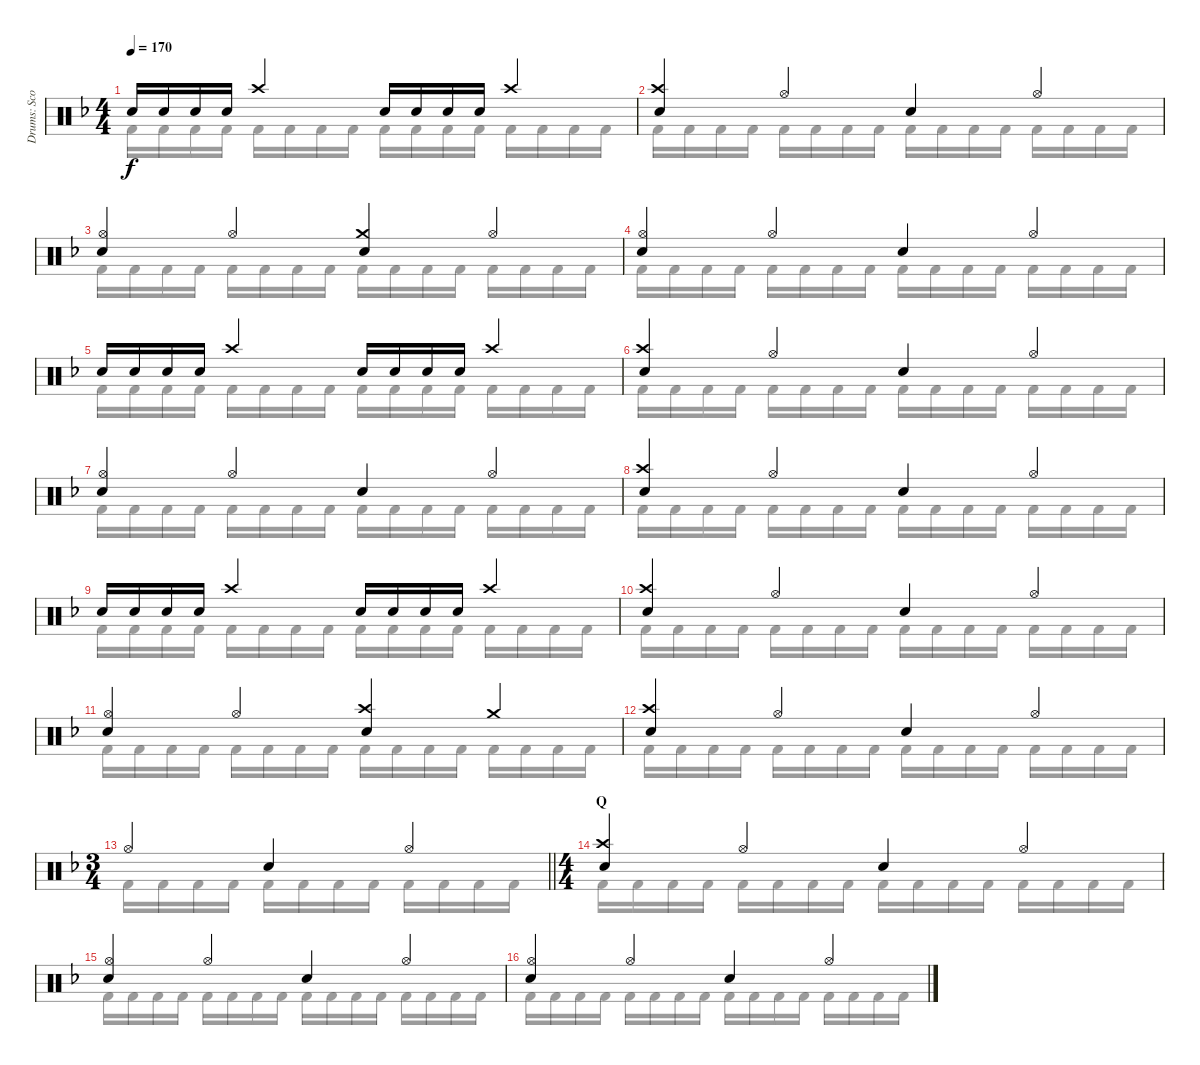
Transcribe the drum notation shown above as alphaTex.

\track ("Drums: Scott" "Drums: Sco") {instrument percussion}
\staff {score}
\articulation defaults
\voice
\ts (4 4)
\tempo 170
\clef neutral
\ks f "Snare (hit) 2".16{dy f} "Snare (hit) 2".16 "Snare (hit) 2".16 "Snare (hit) 2".16 "Crash high (hit)".4 "Snare (hit) 2".16 "Snare (hit) 2".16 "Snare (hit) 2".16 "Snare (hit) 2".16 "Crash high (hit)".4
|
("Crash high (hit)" "Snare (hit) 2").4 "Hi-Hat (open)".4 "Snare (hit) 2".4 "Hi-Hat (open)".4 |
("Hi-Hat (open)" "Snare (hit) 2").4 "Hi-Hat (open)".4 ("Crash medium (hit)" "Snare (hit) 2").4 "Hi-Hat (open)".4 |
("Hi-Hat (open)" "Snare (hit) 2").4 "Hi-Hat (open)".4 "Snare (hit) 2".4 "Hi-Hat (open)".4 |
"Snare (hit) 2".16 "Snare (hit) 2".16 "Snare (hit) 2".16 "Snare (hit) 2".16 "Crash high (hit)".4 "Snare (hit) 2".16 "Snare (hit) 2".16 "Snare (hit) 2".16 "Snare (hit) 2".16 "Crash high (hit)".4 |
("Crash high (hit)" "Snare (hit) 2").4 "Hi-Hat (open)".4 "Snare (hit) 2".4 "Hi-Hat (open)".4 |
("Hi-Hat (open)" "Snare (hit) 2").4 "Hi-Hat (open)".4 "Snare (hit) 2".4 "Hi-Hat (open)".4 |
("Crash high (hit)" "Snare (hit) 2").4 "Hi-Hat (open)".4 "Snare (hit) 2".4 "Hi-Hat (open)".4 |
"Snare (hit) 2".16 "Snare (hit) 2".16 "Snare (hit) 2".16 "Snare (hit) 2".16 "Crash high (hit)".4 "Snare (hit) 2".16 "Snare (hit) 2".16 "Snare (hit) 2".16 "Snare (hit) 2".16 "Crash high (hit)".4 |
("Crash high (hit)" "Snare (hit) 2").4 "Hi-Hat (open)".4 "Snare (hit) 2".4 "Hi-Hat (open)".4 |
("Hi-Hat (open)" "Snare (hit) 2").4 "Hi-Hat (open)".4 ("Crash high (hit)" "Snare (hit) 2").4 "Crash medium (hit)".4 |
("Crash high (hit)" "Snare (hit) 2").4 "Hi-Hat (open)".4 "Snare (hit) 2".4 "Hi-Hat (open)".4 |
\ts (3 4)
\barLineRight lightlight "Hi-Hat (open)".4 "Snare (hit) 2".4 "Hi-Hat (open)".4
|
\ts (4 4)
\section ("" "Q")
("Crash high (hit)" "Snare (hit) 2").4 "Hi-Hat (open)".4 "Snare (hit) 2".4 "Hi-Hat (open)".4 |
("Hi-Hat (open)" "Snare (hit) 2").4 "Hi-Hat (open)".4 "Snare (hit) 2".4 "Hi-Hat (open)".4 |
("Hi-Hat (open)" "Snare (hit) 2").4 "Hi-Hat (open)".4 "Snare (hit) 2".4 "Hi-Hat (open)".4
\voice
\clef neutral
\ottava regular
\simile none
\ks f "Kick (hit) 2".16{dy f} "Kick (hit) 2".16{beam merge} "Kick (hit) 2".16 "Kick (hit) 2".16 "Kick (hit) 2".16 "Kick (hit) 2".16{beam merge} "Kick (hit) 2".16 "Kick (hit) 2".16 "Kick (hit) 2".16 "Kick (hit) 2".16{beam merge} "Kick (hit) 2".16 "Kick (hit) 2".16 "Kick (hit) 2".16 "Kick (hit) 2".16{beam merge} "Kick (hit) 2".16 "Kick (hit) 2".16
|
"Kick (hit) 2".16 "Kick (hit) 2".16{beam merge} "Kick (hit) 2".16 "Kick (hit) 2".16 "Kick (hit) 2".16 "Kick (hit) 2".16{beam merge} "Kick (hit) 2".16 "Kick (hit) 2".16 "Kick (hit) 2".16 "Kick (hit) 2".16{beam merge} "Kick (hit) 2".16 "Kick (hit) 2".16 "Kick (hit) 2".16 "Kick (hit) 2".16{beam merge} "Kick (hit) 2".16 "Kick (hit) 2".16 |
"Kick (hit) 2".16 "Kick (hit) 2".16{beam merge} "Kick (hit) 2".16 "Kick (hit) 2".16 "Kick (hit) 2".16 "Kick (hit) 2".16{beam merge} "Kick (hit) 2".16 "Kick (hit) 2".16 "Kick (hit) 2".16 "Kick (hit) 2".16{beam merge} "Kick (hit) 2".16 "Kick (hit) 2".16 "Kick (hit) 2".16 "Kick (hit) 2".16{beam merge} "Kick (hit) 2".16 "Kick (hit) 2".16 |
"Kick (hit) 2".16 "Kick (hit) 2".16{beam merge} "Kick (hit) 2".16 "Kick (hit) 2".16 "Kick (hit) 2".16 "Kick (hit) 2".16{beam merge} "Kick (hit) 2".16 "Kick (hit) 2".16 "Kick (hit) 2".16 "Kick (hit) 2".16{beam merge} "Kick (hit) 2".16 "Kick (hit) 2".16 "Kick (hit) 2".16 "Kick (hit) 2".16{beam merge} "Kick (hit) 2".16 "Kick (hit) 2".16 |
"Kick (hit) 2".16 "Kick (hit) 2".16{beam merge} "Kick (hit) 2".16 "Kick (hit) 2".16 "Kick (hit) 2".16 "Kick (hit) 2".16{beam merge} "Kick (hit) 2".16 "Kick (hit) 2".16 "Kick (hit) 2".16 "Kick (hit) 2".16{beam merge} "Kick (hit) 2".16 "Kick (hit) 2".16 "Kick (hit) 2".16 "Kick (hit) 2".16{beam merge} "Kick (hit) 2".16 "Kick (hit) 2".16 |
"Kick (hit) 2".16 "Kick (hit) 2".16{beam merge} "Kick (hit) 2".16 "Kick (hit) 2".16 "Kick (hit) 2".16 "Kick (hit) 2".16{beam merge} "Kick (hit) 2".16 "Kick (hit) 2".16 "Kick (hit) 2".16 "Kick (hit) 2".16{beam merge} "Kick (hit) 2".16 "Kick (hit) 2".16 "Kick (hit) 2".16 "Kick (hit) 2".16{beam merge} "Kick (hit) 2".16 "Kick (hit) 2".16 |
"Kick (hit) 2".16 "Kick (hit) 2".16{beam merge} "Kick (hit) 2".16 "Kick (hit) 2".16 "Kick (hit) 2".16 "Kick (hit) 2".16{beam merge} "Kick (hit) 2".16 "Kick (hit) 2".16 "Kick (hit) 2".16 "Kick (hit) 2".16{beam merge} "Kick (hit) 2".16 "Kick (hit) 2".16 "Kick (hit) 2".16 "Kick (hit) 2".16{beam merge} "Kick (hit) 2".16 "Kick (hit) 2".16 |
"Kick (hit) 2".16 "Kick (hit) 2".16{beam merge} "Kick (hit) 2".16 "Kick (hit) 2".16 "Kick (hit) 2".16 "Kick (hit) 2".16{beam merge} "Kick (hit) 2".16 "Kick (hit) 2".16 "Kick (hit) 2".16 "Kick (hit) 2".16{beam merge} "Kick (hit) 2".16 "Kick (hit) 2".16 "Kick (hit) 2".16 "Kick (hit) 2".16{beam merge} "Kick (hit) 2".16 "Kick (hit) 2".16 |
"Kick (hit) 2".16 "Kick (hit) 2".16{beam merge} "Kick (hit) 2".16 "Kick (hit) 2".16 "Kick (hit) 2".16 "Kick (hit) 2".16{beam merge} "Kick (hit) 2".16 "Kick (hit) 2".16 "Kick (hit) 2".16 "Kick (hit) 2".16{beam merge} "Kick (hit) 2".16 "Kick (hit) 2".16 "Kick (hit) 2".16 "Kick (hit) 2".16{beam merge} "Kick (hit) 2".16 "Kick (hit) 2".16 |
"Kick (hit) 2".16 "Kick (hit) 2".16{beam merge} "Kick (hit) 2".16 "Kick (hit) 2".16 "Kick (hit) 2".16 "Kick (hit) 2".16{beam merge} "Kick (hit) 2".16 "Kick (hit) 2".16 "Kick (hit) 2".16 "Kick (hit) 2".16{beam merge} "Kick (hit) 2".16 "Kick (hit) 2".16 "Kick (hit) 2".16 "Kick (hit) 2".16{beam merge} "Kick (hit) 2".16 "Kick (hit) 2".16 |
"Kick (hit) 2".16 "Kick (hit) 2".16{beam merge} "Kick (hit) 2".16 "Kick (hit) 2".16 "Kick (hit) 2".16 "Kick (hit) 2".16{beam merge} "Kick (hit) 2".16 "Kick (hit) 2".16 "Kick (hit) 2".16 "Kick (hit) 2".16{beam merge} "Kick (hit) 2".16 "Kick (hit) 2".16 "Kick (hit) 2".16 "Kick (hit) 2".16{beam merge} "Kick (hit) 2".16 "Kick (hit) 2".16 |
"Kick (hit) 2".16 "Kick (hit) 2".16{beam merge} "Kick (hit) 2".16 "Kick (hit) 2".16 "Kick (hit) 2".16 "Kick (hit) 2".16{beam merge} "Kick (hit) 2".16 "Kick (hit) 2".16 "Kick (hit) 2".16 "Kick (hit) 2".16{beam merge} "Kick (hit) 2".16 "Kick (hit) 2".16 "Kick (hit) 2".16 "Kick (hit) 2".16{beam merge} "Kick (hit) 2".16 "Kick (hit) 2".16 |
\barLineRight lightlight "Kick (hit) 2".16 "Kick (hit) 2".16{beam merge} "Kick (hit) 2".16 "Kick (hit) 2".16 "Kick (hit) 2".16 "Kick (hit) 2".16{beam merge} "Kick (hit) 2".16 "Kick (hit) 2".16 "Kick (hit) 2".16 "Kick (hit) 2".16{beam merge} "Kick (hit) 2".16 "Kick (hit) 2".16
|
"Kick (hit) 2".16 "Kick (hit) 2".16{beam merge} "Kick (hit) 2".16 "Kick (hit) 2".16 "Kick (hit) 2".16 "Kick (hit) 2".16{beam merge} "Kick (hit) 2".16 "Kick (hit) 2".16 "Kick (hit) 2".16 "Kick (hit) 2".16{beam merge} "Kick (hit) 2".16 "Kick (hit) 2".16 "Kick (hit) 2".16 "Kick (hit) 2".16{beam merge} "Kick (hit) 2".16 "Kick (hit) 2".16 |
"Kick (hit) 2".16 "Kick (hit) 2".16{beam merge} "Kick (hit) 2".16 "Kick (hit) 2".16 "Kick (hit) 2".16 "Kick (hit) 2".16{beam merge} "Kick (hit) 2".16 "Kick (hit) 2".16 "Kick (hit) 2".16 "Kick (hit) 2".16{beam merge} "Kick (hit) 2".16 "Kick (hit) 2".16 "Kick (hit) 2".16 "Kick (hit) 2".16{beam merge} "Kick (hit) 2".16 "Kick (hit) 2".16 |
"Kick (hit) 2".16 "Kick (hit) 2".16{beam merge} "Kick (hit) 2".16 "Kick (hit) 2".16 "Kick (hit) 2".16 "Kick (hit) 2".16{beam merge} "Kick (hit) 2".16 "Kick (hit) 2".16 "Kick (hit) 2".16 "Kick (hit) 2".16{beam merge} "Kick (hit) 2".16 "Kick (hit) 2".16 "Kick (hit) 2".16 "Kick (hit) 2".16{beam merge} "Kick (hit) 2".16 "Kick (hit) 2".16
